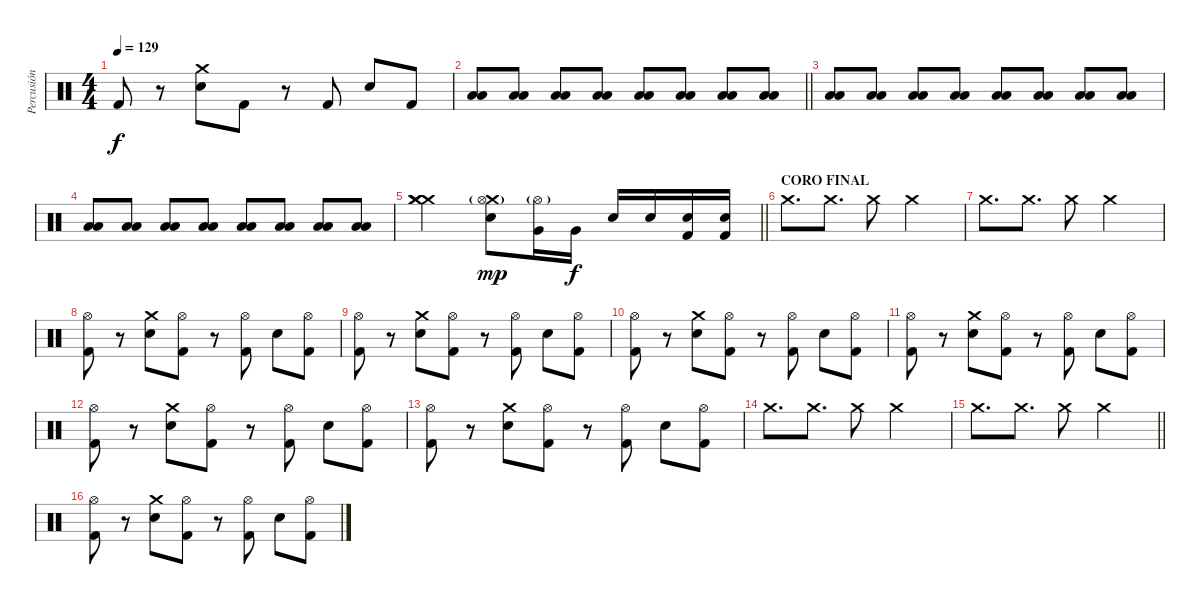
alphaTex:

\track ("Percusión" "Percusión") {instrument percussion}
\staff {score}
\articulation defaults
\ts (4 4)
\tempo 129
\clef neutral
\ks c "Kick (hit) 2".8{dy f}
r.8 ("Crash medium (hit)" "Snare (hit) 2").8 "Kick (hit) 2".8 r.8 "Kick (hit) 2".8 "Snare (hit) 2".8 "Kick (hit) 2".8 |
\barLineRight lightlight
("Low Floor Tom (hit)" "Low Floor Tom (hit)").8 ("Low Floor Tom (hit)" "Low Floor Tom (hit)").8 ("Low Floor Tom (hit)" "Low Floor Tom (hit)").8 ("Low Floor Tom (hit)" "Low Floor Tom (hit)").8 ("Low Floor Tom (hit)" "Low Floor Tom (hit)").8 ("Low Floor Tom (hit)" "Low Floor Tom (hit)").8 ("Low Floor Tom (hit)" "Low Floor Tom (hit)").8 ("Low Floor Tom (hit)" "Low Floor Tom (hit)").8 |
("Low Floor Tom (hit)" "Low Floor Tom (hit)").8 ("Low Floor Tom (hit)" "Low Floor Tom (hit)").8 ("Low Floor Tom (hit)" "Low Floor Tom (hit)").8 ("Low Floor Tom (hit)" "Low Floor Tom (hit)").8 ("Low Floor Tom (hit)" "Low Floor Tom (hit)").8 ("Low Floor Tom (hit)" "Low Floor Tom (hit)").8 ("Low Floor Tom (hit)" "Low Floor Tom (hit)").8 ("Low Floor Tom (hit)" "Low Floor Tom (hit)").8 |
("Low Floor Tom (hit)" "Low Floor Tom (hit)").8 ("Low Floor Tom (hit)" "Low Floor Tom (hit)").8 ("Low Floor Tom (hit)" "Low Floor Tom (hit)").8 ("Low Floor Tom (hit)" "Low Floor Tom (hit)").8 ("Low Floor Tom (hit)" "Low Floor Tom (hit)").8 ("Low Floor Tom (hit)" "Low Floor Tom (hit)").8 ("Low Floor Tom (hit)" "Low Floor Tom (hit)").8 ("Low Floor Tom (hit)" "Low Floor Tom (hit)").8 |
\barLineRight lightlight
("Crash medium (hit)" "Crash medium (hit)" "Crash medium (hit)" "Crash medium (hit)").2 ("Crash medium (hit)"{g} "Hi-Hat (open)" "Snare (hit) 2").8{dy mp} ("Hi-Hat (open)"{g} "Very Low Tom (hit)").16 "Very Low Tom (hit)".16{dy f} "Snare (hit) 2".16 "Snare (hit) 2".16 ("Snare (hit) 2" "Kick (hit) 2").16 ("Snare (hit) 2" "Kick (hit) 2").16 |
\section ("" "CORO FINAL")
"Crash medium (hit)".8{d} "Crash medium (hit)".8{d} "Crash medium (hit)".8 "Crash medium (hit)".2 |
"Crash medium (hit)".8{d} "Crash medium (hit)".8{d} "Crash medium (hit)".8 "Crash medium (hit)".2 |
("Hi-Hat (open)" "Kick (hit) 2").8 r.8 ("Crash medium (hit)" "Snare (hit) 2").8 ("Hi-Hat (open)" "Kick (hit) 2").8 r.8 ("Hi-Hat (open)" "Kick (hit) 2").8 "Snare (hit) 2".8 ("Hi-Hat (open)" "Kick (hit) 2").8 |
("Hi-Hat (open)" "Kick (hit) 2").8 r.8 ("Crash medium (hit)" "Snare (hit) 2").8 ("Hi-Hat (open)" "Kick (hit) 2").8 r.8 ("Hi-Hat (open)" "Kick (hit) 2").8 "Snare (hit) 2".8 ("Hi-Hat (open)" "Kick (hit) 2").8 |
("Hi-Hat (open)" "Kick (hit) 2").8 r.8 ("Crash medium (hit)" "Snare (hit) 2").8 ("Hi-Hat (open)" "Kick (hit) 2").8 r.8 ("Hi-Hat (open)" "Kick (hit) 2").8 "Snare (hit) 2".8 ("Hi-Hat (open)" "Kick (hit) 2").8 |
("Hi-Hat (open)" "Kick (hit) 2").8 r.8 ("Crash medium (hit)" "Snare (hit) 2").8 ("Hi-Hat (open)" "Kick (hit) 2").8 r.8 ("Hi-Hat (open)" "Kick (hit) 2").8 "Snare (hit) 2".8 ("Hi-Hat (open)" "Kick (hit) 2").8 |
("Hi-Hat (open)" "Kick (hit) 2").8 r.8 ("Crash medium (hit)" "Snare (hit) 2").8 ("Hi-Hat (open)" "Kick (hit) 2").8 r.8 ("Hi-Hat (open)" "Kick (hit) 2").8 "Snare (hit) 2".8 ("Hi-Hat (open)" "Kick (hit) 2").8 |
("Hi-Hat (open)" "Kick (hit) 2").8 r.8 ("Crash medium (hit)" "Snare (hit) 2").8 ("Hi-Hat (open)" "Kick (hit) 2").8 r.8 ("Hi-Hat (open)" "Kick (hit) 2").8 "Snare (hit) 2".8 ("Hi-Hat (open)" "Kick (hit) 2").8 |
"Crash medium (hit)".8{d} "Crash medium (hit)".8{d} "Crash medium (hit)".8 "Crash medium (hit)".2 |
\barLineRight lightlight "Crash medium (hit)".8{d} "Crash medium (hit)".8{d} "Crash medium (hit)".8 "Crash medium (hit)".2
|
("Hi-Hat (open)" "Kick (hit) 2").8 r.8 ("Crash medium (hit)" "Snare (hit) 2").8 ("Hi-Hat (open)" "Kick (hit) 2").8 r.8 ("Hi-Hat (open)" "Kick (hit) 2").8 "Snare (hit) 2".8 ("Hi-Hat (open)" "Kick (hit) 2").8
